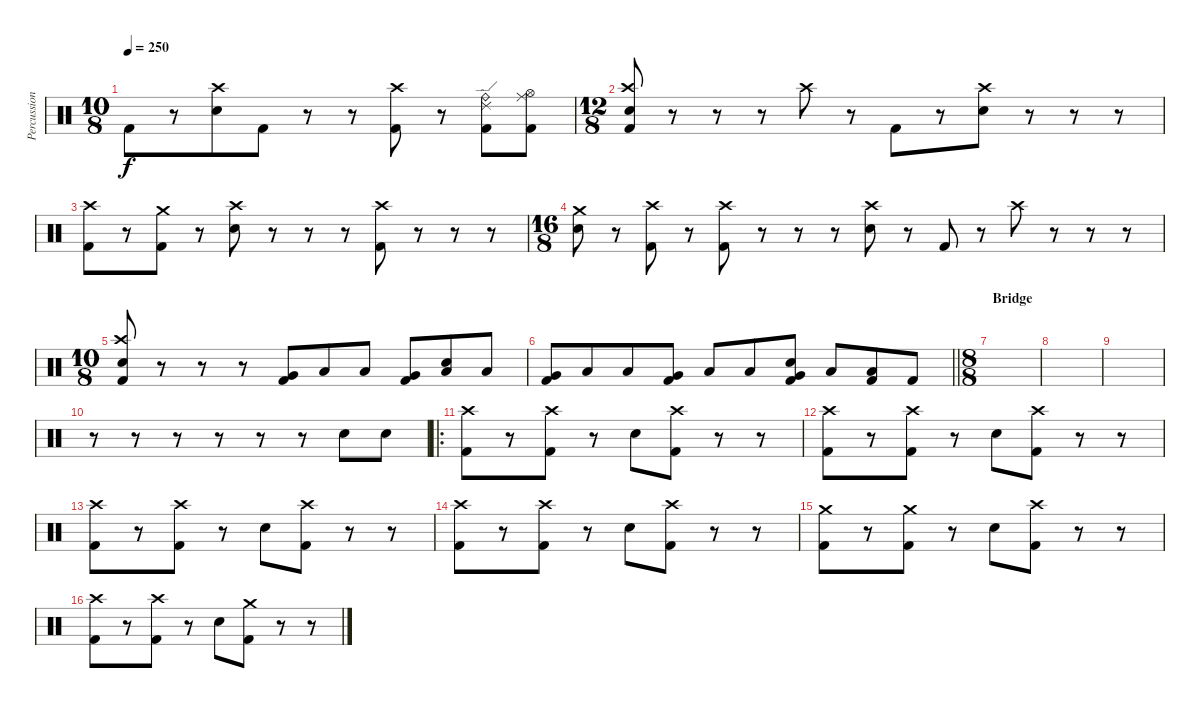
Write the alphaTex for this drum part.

\track ("Percussions" "Percussion") {instrument percussion}
\staff {score}
\articulation defaults
\ts (10 8)
\tempo 250
\clef neutral
\ks c "Kick (hit) 2".8{dy f}
r.8 ("Crash high (hit)" "Electric Snare (hit)").8 "Kick (hit) 2".8 r.8 r.8 ("Crash high (hit)" "Kick (hit) 2").8 r.8 ("Ride (bell)" "Ride (edge) 2" "Kick (hit) 2").8 ("Ride (middle)" "Hi-Hat (open)" "Kick (hit) 2").8 |
\ts (12 8)
("Crash high (hit)" "Electric Snare (hit)" "Kick (hit) 2").8 r.8 r.8 r.8 "Crash high (hit)".8 r.8 "Kick (hit) 2".8 r.8 ("Crash high (hit)" "Electric Snare (hit)").8 r.8 r.8 r.8 |
("Crash high (hit)" "Kick (hit) 2").8 r.8 ("Crash medium (hit)" "Kick (hit) 2").8 r.8 ("Crash high (hit)" "Electric Snare (hit)").8 r.8 r.8 r.8 ("Crash high (hit)" "Kick (hit) 2").8 r.8 r.8 r.8 |
\ts (16 8)
("Crash medium (hit)" "Electric Snare (hit)").8 r.8 ("Crash high (hit)" "Kick (hit) 2").8 r.8 ("Crash high (hit)" "Kick (hit) 2").8 r.8 r.8 r.8 ("Crash high (hit)" "Electric Snare (hit)").8 r.8 "Kick (hit) 2".8 r.8 "Crash high (hit)".8 r.8 r.8 r.8 |
\ts (10 8)
("Crash high (hit)" "Electric Snare (hit)" "Kick (hit) 2").8 r.8 r.8 r.8 ("Very Low Tom (hit)" "Kick (hit) 2").8 "Low Floor Tom (hit)".8 "Low Floor Tom (hit)".8 ("Very Low Tom (hit)" "Kick (hit) 2").8 ("Electric Snare (hit)" "Low Floor Tom (hit)").8 "Low Floor Tom (hit)".8 |
\barLineRight lightlight
("Very Low Tom (hit)" "Kick (hit) 2").8 "Low Floor Tom (hit)".8 "Low Floor Tom (hit)".8 ("Very Low Tom (hit)" "Kick (hit) 2").8 "Low Floor Tom (hit)".8 "Low Floor Tom (hit)".8 ("Electric Snare (hit)" "Very Low Tom (hit)" "Kick (hit) 2").8 "Low Floor Tom (hit)".8 ("Low Floor Tom (hit)" "Kick (hit) 2").8 "Kick (hit) 2".8 |
\ts (8 8)
\section ("" "Bridge")
|
|
|
r.8 r.8 r.8 r.8 r.8 r.8 "Electric Snare (hit)".8 "Electric Snare (hit)".8 |
\ro
("Crash high (hit)" "Kick (hit) 2").8 r.8 ("Crash high (hit)" "Kick (hit) 2").8 r.8 "Electric Snare (hit)".8 ("Crash high (hit)" "Kick (hit) 2").8 r.8 r.8 |
("Crash high (hit)" "Kick (hit) 2").8 r.8 ("Crash high (hit)" "Kick (hit) 2").8 r.8 "Electric Snare (hit)".8 ("Crash high (hit)" "Kick (hit) 2").8 r.8 r.8 |
("Crash high (hit)" "Kick (hit) 2").8 r.8 ("Crash high (hit)" "Kick (hit) 2").8 r.8 "Electric Snare (hit)".8 ("Crash high (hit)" "Kick (hit) 2").8 r.8 r.8 |
("Crash high (hit)" "Kick (hit) 2").8 r.8 ("Crash high (hit)" "Kick (hit) 2").8 r.8 "Electric Snare (hit)".8 ("Crash high (hit)" "Kick (hit) 2").8 r.8 r.8 |
("Crash medium (hit)" "Kick (hit) 2").8 r.8 ("Crash medium (hit)" "Kick (hit) 2").8 r.8 "Electric Snare (hit)".8 ("Crash high (hit)" "Kick (hit) 2").8 r.8 r.8 |
("Crash high (hit)" "Kick (hit) 2").8 r.8 ("Crash high (hit)" "Kick (hit) 2").8 r.8 "Electric Snare (hit)".8 ("Crash medium (hit)" "Kick (hit) 2").8 r.8 r.8
